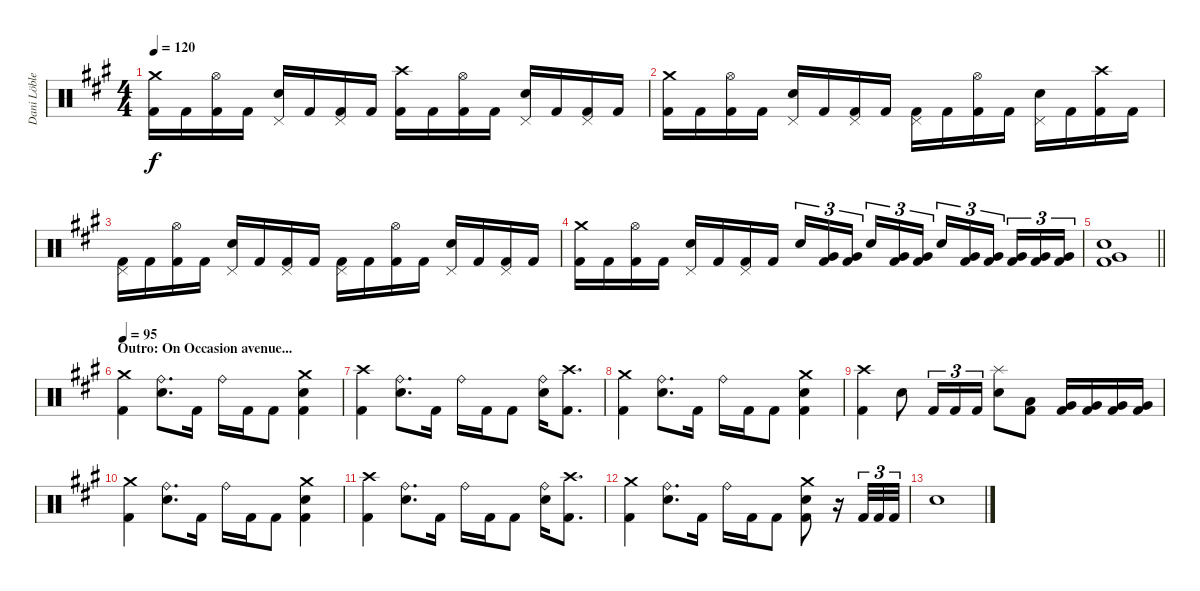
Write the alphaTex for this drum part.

\track ("Dani Löble" "Dani Löble") {instrument percussion}
\staff {score}
\articulation defaults
\ts (4 4)
\tempo 120
\clef neutral
\ks f#minor
("Crash medium (hit)" "Kick (hit) 2").16{dy f} "Kick (hit) 2".16 ("Hi-Hat (open)" "Kick (hit) 2").16 "Kick (hit) 2".16 ("Pedal Hi-Hat (hit)" "Snare (hit) 2").16 "Kick (hit) 2".16 ("Pedal Hi-Hat (hit)" "Kick (hit) 2").16 "Kick (hit) 2".16 ("Crash high (hit)" "Kick (hit) 2").16 "Kick (hit) 2".16 ("Hi-Hat (open)" "Kick (hit) 2").16 "Kick (hit) 2".16 ("Pedal Hi-Hat (hit)" "Snare (hit) 2").16 "Kick (hit) 2".16 ("Pedal Hi-Hat (hit)" "Kick (hit) 2").16 "Kick (hit) 2".16 |
("Crash medium (hit)" "Kick (hit) 2").16 "Kick (hit) 2".16 ("Hi-Hat (open)" "Kick (hit) 2").16 "Kick (hit) 2".16 ("Pedal Hi-Hat (hit)" "Snare (hit) 2").16 "Kick (hit) 2".16 ("Pedal Hi-Hat (hit)" "Kick (hit) 2").16 "Kick (hit) 2".16 ("Pedal Hi-Hat (hit)" "Kick (hit) 2").16 "Kick (hit) 2".16 ("Hi-Hat (open)" "Kick (hit) 2").16 "Kick (hit) 2".16 ("Pedal Hi-Hat (hit)" "Snare (hit) 2").16 "Kick (hit) 2".16 ("Crash high (hit)" "Kick (hit) 2").16 "Kick (hit) 2".16 |
("Pedal Hi-Hat (hit)" "Kick (hit) 2").16 "Kick (hit) 2".16 ("Hi-Hat (open)" "Kick (hit) 2").16 "Kick (hit) 2".16 ("Pedal Hi-Hat (hit)" "Snare (hit) 2").16 "Kick (hit) 2".16 ("Pedal Hi-Hat (hit)" "Kick (hit) 2").16 "Kick (hit) 2".16 ("Pedal Hi-Hat (hit)" "Kick (hit) 2").16 "Kick (hit) 2".16 ("Hi-Hat (open)" "Kick (hit) 2").16 "Kick (hit) 2".16 ("Pedal Hi-Hat (hit)" "Snare (hit) 2").16 "Kick (hit) 2".16 ("Pedal Hi-Hat (hit)" "Kick (hit) 2").16 "Kick (hit) 2".16 |
("Crash medium (hit)" "Kick (hit) 2").16 "Kick (hit) 2".16 ("Hi-Hat (open)" "Kick (hit) 2").16 "Kick (hit) 2".16 ("Pedal Hi-Hat (hit)" "Snare (hit) 2").16 "Kick (hit) 2".16 ("Pedal Hi-Hat (hit)" "Kick (hit) 2").16 "Kick (hit) 2".16 "Snare (hit) 2".16{tu (3 2)} ("Very Low Tom (hit)" "Kick (hit) 2").16{tu (3 2)} ("Very Low Tom (hit)" "Kick (hit) 2").16{tu (3 2) beam splitsecondary} "Snare (hit) 2".16{tu (3 2)} ("Very Low Tom (hit)" "Kick (hit) 2").16{tu (3 2)} ("Very Low Tom (hit)" "Kick (hit) 2").16{tu (3 2)} "Snare (hit) 2".16{tu (3 2)} ("Very Low Tom (hit)" "Kick (hit) 2").16{tu (3 2)} ("Very Low Tom (hit)" "Kick (hit) 2").16{tu (3 2) beam splitsecondary} ("Very Low Tom (hit)" "Kick (hit) 2").16{tu (3 2)} ("Very Low Tom (hit)" "Kick (hit) 2").16{tu (3 2)} ("Very Low Tom (hit)" "Kick (hit) 2").16{tu (3 2)} |
\barLineRight lightlight
("Very Low Tom (hit)" "Snare (hit) 2" "Kick (hit) 2").1 |
\section ("" "Outro: On Occasion avenue...")
\tempo 95
("Crash medium (hit)" "Kick (hit) 2").4 ("Ride (bell)" "Snare (hit) 2").8{d} "Kick (hit) 2".16 "Ride (bell)".16 "Kick (hit) 2".16 "Kick (hit) 2".8 ("Crash medium (hit)" "Snare (hit) 2" "Kick (hit) 2").4 |
("Crash high (hit)" "Kick (hit) 2").4 ("Ride (bell)" "Snare (hit) 2").8{d} "Kick (hit) 2".16 "Ride (bell)".16 "Kick (hit) 2".16 "Kick (hit) 2".8 ("Ride (bell)" "Snare (hit) 2").16 ("Crash high (hit)" "Kick (hit) 2").8{d} |
("Crash medium (hit)" "Kick (hit) 2").4 ("Ride (bell)" "Snare (hit) 2").8{d} "Kick (hit) 2".16 "Ride (bell)".16 "Kick (hit) 2".16 "Kick (hit) 2".8 ("Crash medium (hit)" "Snare (hit) 2" "Kick (hit) 2").4 |
("Crash high (hit)" "Kick (hit) 2").4 "Snare (hit) 2".8 "Kick (hit) 2".16{tu (3 2)} "Kick (hit) 2".16{tu (3 2)} "Kick (hit) 2".16{tu (3 2)} ("Splash (hit)" "Snare (hit) 2").8 ("Low Floor Tom (hit)" "Kick (hit) 2").8 ("Very Low Tom (hit)" "Kick (hit) 2").16 ("Very Low Tom (hit)" "Kick (hit) 2").16 ("Very Low Tom (hit)" "Kick (hit) 2").16 ("Very Low Tom (hit)" "Kick (hit) 2").16 |
("Crash medium (hit)" "Kick (hit) 2").4 ("Ride (bell)" "Snare (hit) 2").8{d} "Kick (hit) 2".16 "Ride (bell)".16 "Kick (hit) 2".16 "Kick (hit) 2".8 ("Crash medium (hit)" "Snare (hit) 2" "Kick (hit) 2").4 |
("Crash high (hit)" "Kick (hit) 2").4 ("Ride (bell)" "Snare (hit) 2").8{d} "Kick (hit) 2".16 "Ride (bell)".16 "Kick (hit) 2".16 "Kick (hit) 2".8 ("Ride (bell)" "Snare (hit) 2").16 ("Crash high (hit)" "Kick (hit) 2").8{d} |
("Crash medium (hit)" "Kick (hit) 2").4 ("Ride (bell)" "Snare (hit) 2").8{d} "Kick (hit) 2".16 "Ride (bell)".16 "Kick (hit) 2".16 "Kick (hit) 2".8 ("Crash medium (hit)" "Snare (hit) 2" "Kick (hit) 2").8 r.16 "Kick (hit) 2".32{tu (3 2)} "Kick (hit) 2".32{tu (3 2)} "Kick (hit) 2".32{tu (3 2)} |
"Snare (hit) 2".1
